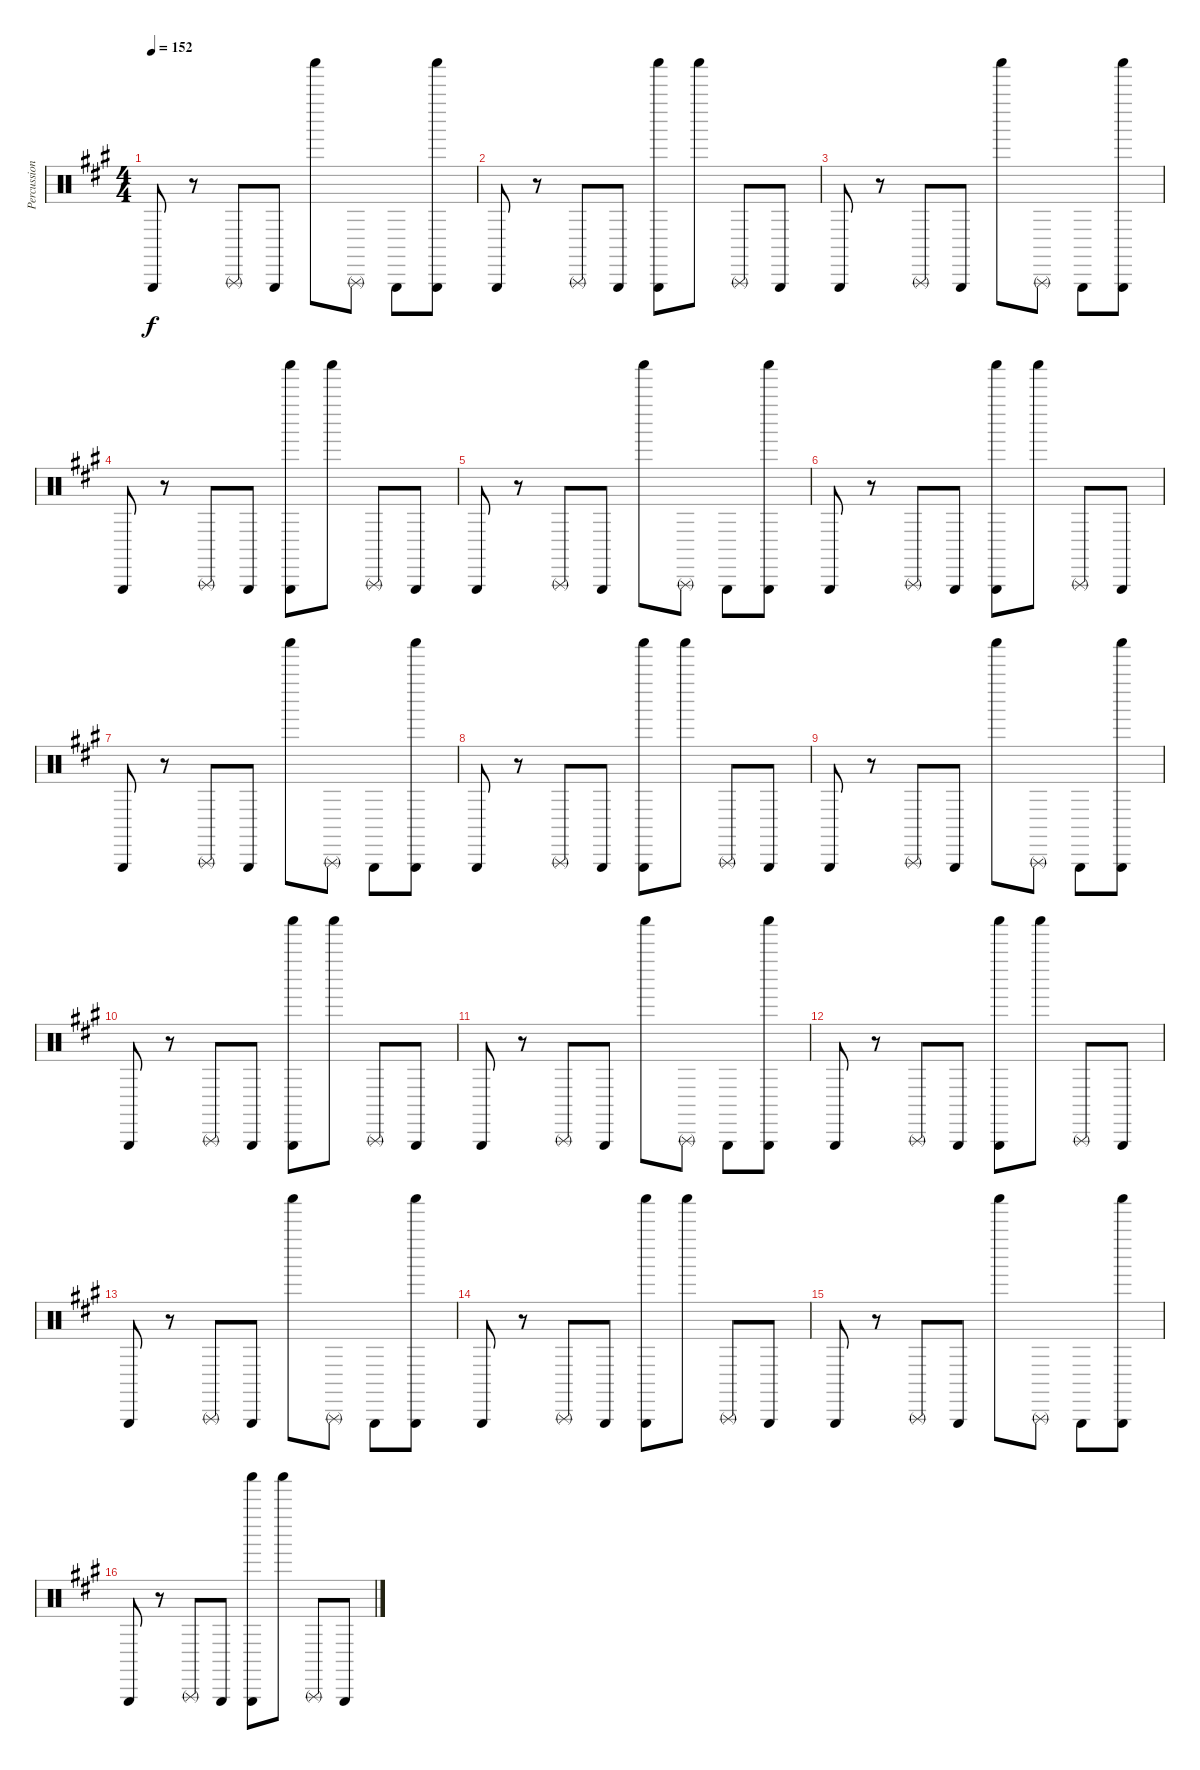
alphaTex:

\track ("Percussions" "Percussion") {instrument percussion}
\staff {score}
\articulation defaults
\ts (4 4)
\tempo 152
\clef neutral
\ks a "Triangle (hit)".8{dy f}
r.8 "Triangle (rnute)".8 "Triangle (hit)".8 "Shaker (hit)".8 "Triangle (rnute)".8 "Triangle (hit)".8 ("Triangle (hit)" "Shaker (hit)").8 |
"Triangle (hit)".8 r.8 "Triangle (rnute)".8 "Triangle (hit)".8 ("Triangle (hit)" "Shaker (hit)").8 "Shaker (hit)".8 "Triangle (rnute)".8 "Triangle (hit)".8 |
"Triangle (hit)".8 r.8 "Triangle (rnute)".8 "Triangle (hit)".8 "Shaker (hit)".8 "Triangle (rnute)".8 "Triangle (hit)".8 ("Triangle (hit)" "Shaker (hit)").8 |
"Triangle (hit)".8 r.8 "Triangle (rnute)".8 "Triangle (hit)".8 ("Triangle (hit)" "Shaker (hit)").8 "Shaker (hit)".8 "Triangle (rnute)".8 "Triangle (hit)".8 |
"Triangle (hit)".8 r.8 "Triangle (rnute)".8 "Triangle (hit)".8 "Shaker (hit)".8 "Triangle (rnute)".8 "Triangle (hit)".8 ("Triangle (hit)" "Shaker (hit)").8 |
"Triangle (hit)".8 r.8 "Triangle (rnute)".8 "Triangle (hit)".8 ("Triangle (hit)" "Shaker (hit)").8 "Shaker (hit)".8 "Triangle (rnute)".8 "Triangle (hit)".8 |
"Triangle (hit)".8 r.8 "Triangle (rnute)".8 "Triangle (hit)".8 "Shaker (hit)".8 "Triangle (rnute)".8 "Triangle (hit)".8 ("Triangle (hit)" "Shaker (hit)").8 |
"Triangle (hit)".8 r.8 "Triangle (rnute)".8 "Triangle (hit)".8 ("Triangle (hit)" "Shaker (hit)").8 "Shaker (hit)".8 "Triangle (rnute)".8 "Triangle (hit)".8 |
"Triangle (hit)".8 r.8 "Triangle (rnute)".8 "Triangle (hit)".8 "Shaker (hit)".8 "Triangle (rnute)".8 "Triangle (hit)".8 ("Triangle (hit)" "Shaker (hit)").8 |
"Triangle (hit)".8 r.8 "Triangle (rnute)".8 "Triangle (hit)".8 ("Triangle (hit)" "Shaker (hit)").8 "Shaker (hit)".8 "Triangle (rnute)".8 "Triangle (hit)".8 |
"Triangle (hit)".8 r.8 "Triangle (rnute)".8 "Triangle (hit)".8 "Shaker (hit)".8 "Triangle (rnute)".8 "Triangle (hit)".8 ("Triangle (hit)" "Shaker (hit)").8 |
"Triangle (hit)".8 r.8 "Triangle (rnute)".8 "Triangle (hit)".8 ("Triangle (hit)" "Shaker (hit)").8 "Shaker (hit)".8 "Triangle (rnute)".8 "Triangle (hit)".8 |
"Triangle (hit)".8 r.8 "Triangle (rnute)".8 "Triangle (hit)".8 "Shaker (hit)".8 "Triangle (rnute)".8 "Triangle (hit)".8 ("Triangle (hit)" "Shaker (hit)").8 |
"Triangle (hit)".8{volume 0} r.8 "Triangle (rnute)".8 "Triangle (hit)".8 ("Triangle (hit)" "Shaker (hit)").8 "Shaker (hit)".8 "Triangle (rnute)".8 "Triangle (hit)".8 |
"Triangle (hit)".8 r.8 "Triangle (rnute)".8 "Triangle (hit)".8 "Shaker (hit)".8 "Triangle (rnute)".8 "Triangle (hit)".8 ("Triangle (hit)" "Shaker (hit)").8 |
"Triangle (hit)".8 r.8 "Triangle (rnute)".8 "Triangle (hit)".8 ("Triangle (hit)" "Shaker (hit)").8 "Shaker (hit)".8 "Triangle (rnute)".8 "Triangle (hit)".8
